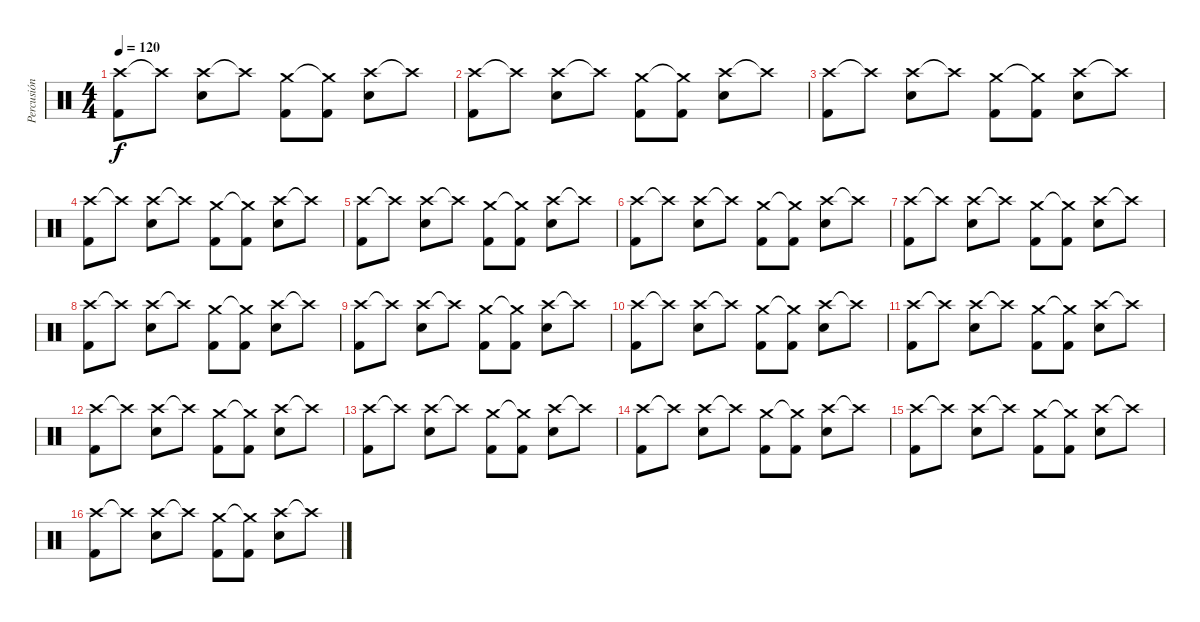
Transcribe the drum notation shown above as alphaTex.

\track ("Percusión" "Percusión") {instrument percussion}
\staff {score}
\articulation defaults
\ts (4 4)
\tempo 120
\clef neutral
\ks c
("Crash high (hit)" "Kick (hit) 2").8{dy f} "Crash high (hit)"{t}.8 ("Crash high (hit)" "Snare (hit) 2").8 "Crash high (hit)"{t}.8 ("Crash medium (hit)" "Kick (hit) 2").8 ("Crash medium (hit)"{t} "Kick (hit) 2").8 ("Crash high (hit)" "Snare (hit) 2").8 "Crash high (hit)"{t}.8 |
("Crash high (hit)" "Kick (hit) 2").8 "Crash high (hit)"{t}.8 ("Crash high (hit)" "Snare (hit) 2").8 "Crash high (hit)"{t}.8 ("Crash medium (hit)" "Kick (hit) 2").8 ("Crash medium (hit)"{t} "Kick (hit) 2").8 ("Crash high (hit)" "Snare (hit) 2").8 "Crash high (hit)"{t}.8 |
("Crash high (hit)" "Kick (hit) 2").8 "Crash high (hit)"{t}.8 ("Crash high (hit)" "Snare (hit) 2").8 "Crash high (hit)"{t}.8 ("Crash medium (hit)" "Kick (hit) 2").8 ("Crash medium (hit)"{t} "Kick (hit) 2").8 ("Crash high (hit)" "Snare (hit) 2").8 "Crash high (hit)"{t}.8 |
("Crash high (hit)" "Kick (hit) 2").8 "Crash high (hit)"{t}.8 ("Crash high (hit)" "Snare (hit) 2").8 "Crash high (hit)"{t}.8 ("Crash medium (hit)" "Kick (hit) 2").8 ("Crash medium (hit)"{t} "Kick (hit) 2").8 ("Crash high (hit)" "Snare (hit) 2").8 "Crash high (hit)"{t}.8 |
("Crash high (hit)" "Kick (hit) 2").8 "Crash high (hit)"{t}.8 ("Crash high (hit)" "Snare (hit) 2").8 "Crash high (hit)"{t}.8 ("Crash medium (hit)" "Kick (hit) 2").8 ("Crash medium (hit)"{t} "Kick (hit) 2").8 ("Crash high (hit)" "Snare (hit) 2").8 "Crash high (hit)"{t}.8 |
("Crash high (hit)" "Kick (hit) 2").8 "Crash high (hit)"{t}.8 ("Crash high (hit)" "Snare (hit) 2").8 "Crash high (hit)"{t}.8 ("Crash medium (hit)" "Kick (hit) 2").8 ("Crash medium (hit)"{t} "Kick (hit) 2").8 ("Crash high (hit)" "Snare (hit) 2").8 "Crash high (hit)"{t}.8 |
("Crash high (hit)" "Kick (hit) 2").8 "Crash high (hit)"{t}.8 ("Crash high (hit)" "Snare (hit) 2").8 "Crash high (hit)"{t}.8 ("Crash medium (hit)" "Kick (hit) 2").8 ("Crash medium (hit)"{t} "Kick (hit) 2").8 ("Crash high (hit)" "Snare (hit) 2").8 "Crash high (hit)"{t}.8 |
("Crash high (hit)" "Kick (hit) 2").8 "Crash high (hit)"{t}.8 ("Crash high (hit)" "Snare (hit) 2").8 "Crash high (hit)"{t}.8 ("Crash medium (hit)" "Kick (hit) 2").8 ("Crash medium (hit)"{t} "Kick (hit) 2").8 ("Crash high (hit)" "Snare (hit) 2").8 "Crash high (hit)"{t}.8 |
("Crash high (hit)" "Kick (hit) 2").8 "Crash high (hit)"{t}.8 ("Crash high (hit)" "Snare (hit) 2").8 "Crash high (hit)"{t}.8 ("Crash medium (hit)" "Kick (hit) 2").8 ("Crash medium (hit)"{t} "Kick (hit) 2").8 ("Crash high (hit)" "Snare (hit) 2").8 "Crash high (hit)"{t}.8 |
("Crash high (hit)" "Kick (hit) 2").8 "Crash high (hit)"{t}.8 ("Crash high (hit)" "Snare (hit) 2").8 "Crash high (hit)"{t}.8 ("Crash medium (hit)" "Kick (hit) 2").8 ("Crash medium (hit)"{t} "Kick (hit) 2").8 ("Crash high (hit)" "Snare (hit) 2").8 "Crash high (hit)"{t}.8 |
("Crash high (hit)" "Kick (hit) 2").8 "Crash high (hit)"{t}.8 ("Crash high (hit)" "Snare (hit) 2").8 "Crash high (hit)"{t}.8 ("Crash medium (hit)" "Kick (hit) 2").8 ("Crash medium (hit)"{t} "Kick (hit) 2").8 ("Crash high (hit)" "Snare (hit) 2").8 "Crash high (hit)"{t}.8 |
("Crash high (hit)" "Kick (hit) 2").8 "Crash high (hit)"{t}.8 ("Crash high (hit)" "Snare (hit) 2").8 "Crash high (hit)"{t}.8 ("Crash medium (hit)" "Kick (hit) 2").8 ("Crash medium (hit)"{t} "Kick (hit) 2").8 ("Crash high (hit)" "Snare (hit) 2").8 "Crash high (hit)"{t}.8 |
("Crash high (hit)" "Kick (hit) 2").8 "Crash high (hit)"{t}.8 ("Crash high (hit)" "Snare (hit) 2").8 "Crash high (hit)"{t}.8 ("Crash medium (hit)" "Kick (hit) 2").8 ("Crash medium (hit)"{t} "Kick (hit) 2").8 ("Crash high (hit)" "Snare (hit) 2").8 "Crash high (hit)"{t}.8 |
("Crash high (hit)" "Kick (hit) 2").8 "Crash high (hit)"{t}.8 ("Crash high (hit)" "Snare (hit) 2").8 "Crash high (hit)"{t}.8 ("Crash medium (hit)" "Kick (hit) 2").8 ("Crash medium (hit)"{t} "Kick (hit) 2").8 ("Crash high (hit)" "Snare (hit) 2").8 "Crash high (hit)"{t}.8 |
("Crash high (hit)" "Kick (hit) 2").8 "Crash high (hit)"{t}.8 ("Crash high (hit)" "Snare (hit) 2").8 "Crash high (hit)"{t}.8 ("Crash medium (hit)" "Kick (hit) 2").8 ("Crash medium (hit)"{t} "Kick (hit) 2").8 ("Crash high (hit)" "Snare (hit) 2").8 "Crash high (hit)"{t}.8 |
("Crash high (hit)" "Kick (hit) 2").8 "Crash high (hit)"{t}.8 ("Crash high (hit)" "Snare (hit) 2").8 "Crash high (hit)"{t}.8 ("Crash medium (hit)" "Kick (hit) 2").8 ("Crash medium (hit)"{t} "Kick (hit) 2").8 ("Crash high (hit)" "Snare (hit) 2").8 "Crash high (hit)"{t}.8
